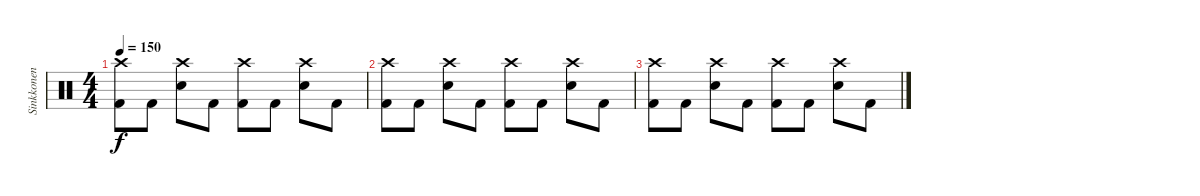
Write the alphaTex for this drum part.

\track ("Sinkkonen" "Sinkkonen") {instrument percussion}
\staff {score}
\articulation defaults
\ts (4 4)
\tempo 150
\clef neutral
\ks c
("Kick (hit) 2" "Crash high (hit)").8{dy f} "Kick (hit) 2".8 ("Crash high (hit)" "Snare (hit) 2").8 "Kick (hit) 2".8 ("Kick (hit) 2" "Crash high (hit)").8 "Kick (hit) 2".8 ("Crash high (hit)" "Snare (hit) 2").8 "Kick (hit) 2".8 |
("Kick (hit) 2" "Crash high (hit)").8{volume 0} "Kick (hit) 2".8 ("Crash high (hit)" "Snare (hit) 2").8 "Kick (hit) 2".8 ("Kick (hit) 2" "Crash high (hit)").8 "Kick (hit) 2".8 ("Crash high (hit)" "Snare (hit) 2").8 "Kick (hit) 2".8 |
("Kick (hit) 2" "Crash high (hit)").8 "Kick (hit) 2".8 ("Crash high (hit)" "Snare (hit) 2").8 "Kick (hit) 2".8 ("Kick (hit) 2" "Crash high (hit)").8 "Kick (hit) 2".8 ("Crash high (hit)" "Snare (hit) 2").8 "Kick (hit) 2".8
